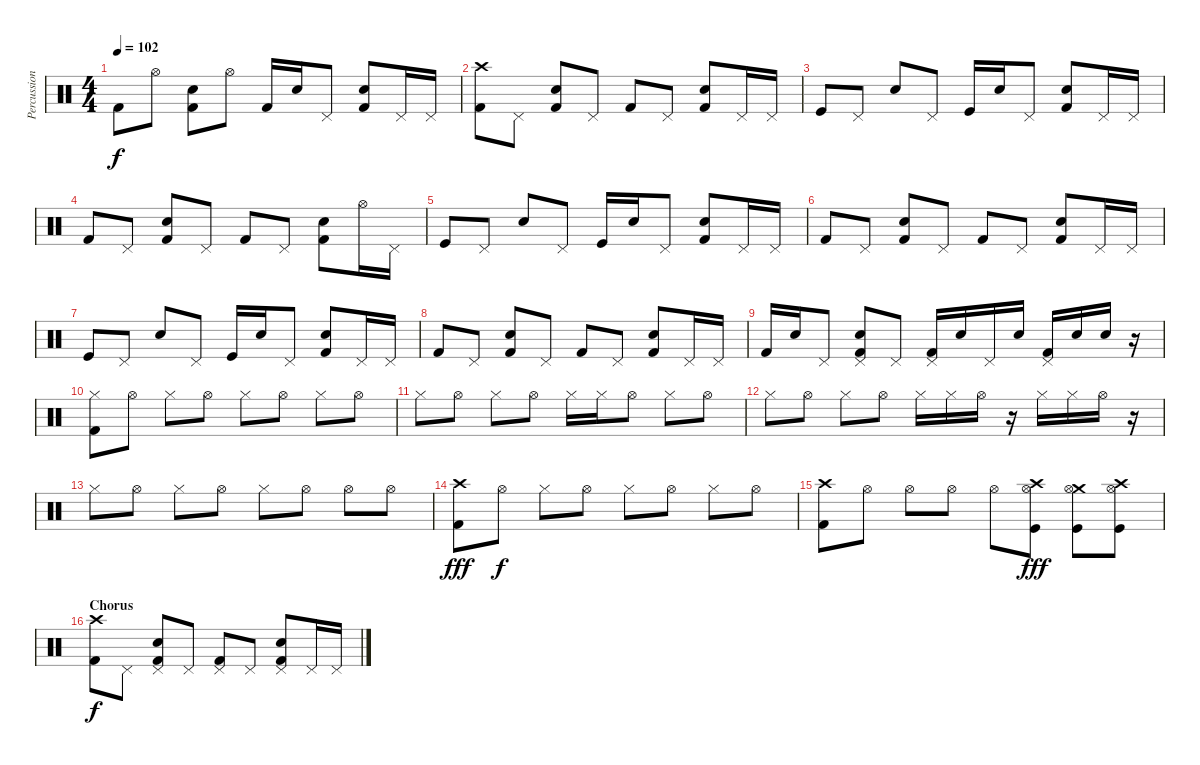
\track ("Percussion" "Percussion") {instrument percussion}
\staff {score}
\articulation defaults
\ts (4 4)
\tempo 102
\clef neutral
\ks c "Kick (hit) 2".8{dy f} "Hi-Hat (open)".8
("Snare (hit) 2" "Kick (hit) 2").8 "Hi-Hat (open)".8 "Kick (hit) 2".16 "Snare (hit) 2".16 "Pedal Hi-Hat (hit)".8 ("Snare (hit) 2" "Kick (hit) 2").8 "Pedal Hi-Hat (hit)".16 "Pedal Hi-Hat (hit)".16 |
("Crash high (hit)" "Kick (hit) 2").8 "Pedal Hi-Hat (hit)".8 ("Snare (hit) 2" "Kick (hit) 2").8 "Pedal Hi-Hat (hit)".8 "Kick (hit) 2".8 "Pedal Hi-Hat (hit)".8 ("Snare (hit) 2" "Kick (hit) 2").8 "Pedal Hi-Hat (hit)".16 "Pedal Hi-Hat (hit)".16 |
"Kick (hit)".8 "Pedal Hi-Hat (hit)".8 "Snare (hit) 2".8 "Pedal Hi-Hat (hit)".8 "Kick (hit)".16 "Snare (hit) 2".16 "Pedal Hi-Hat (hit)".8 ("Snare (hit) 2" "Kick (hit) 2").8 "Pedal Hi-Hat (hit)".16 "Pedal Hi-Hat (hit)".16 |
"Kick (hit) 2".8 "Pedal Hi-Hat (hit)".8 ("Snare (hit) 2" "Kick (hit) 2").8 "Pedal Hi-Hat (hit)".8 "Kick (hit) 2".8 "Pedal Hi-Hat (hit)".8 ("Snare (hit) 2" "Kick (hit) 2").8 "Hi-Hat (open)".16 "Pedal Hi-Hat (hit)".16 |
"Kick (hit)".8 "Pedal Hi-Hat (hit)".8 "Snare (hit) 2".8 "Pedal Hi-Hat (hit)".8 "Kick (hit)".16 "Snare (hit) 2".16 "Pedal Hi-Hat (hit)".8 ("Snare (hit) 2" "Kick (hit) 2").8 "Pedal Hi-Hat (hit)".16 "Pedal Hi-Hat (hit)".16 |
"Kick (hit) 2".8 "Pedal Hi-Hat (hit)".8 ("Snare (hit) 2" "Kick (hit) 2").8 "Pedal Hi-Hat (hit)".8 "Kick (hit) 2".8 "Pedal Hi-Hat (hit)".8 ("Snare (hit) 2" "Kick (hit) 2").8 "Pedal Hi-Hat (hit)".16 "Pedal Hi-Hat (hit)".16 |
"Kick (hit)".8 "Pedal Hi-Hat (hit)".8 "Snare (hit) 2".8 "Pedal Hi-Hat (hit)".8 "Kick (hit)".16 "Snare (hit) 2".16 "Pedal Hi-Hat (hit)".8 ("Snare (hit) 2" "Kick (hit) 2").8 "Pedal Hi-Hat (hit)".16 "Pedal Hi-Hat (hit)".16 |
"Kick (hit) 2".8 "Pedal Hi-Hat (hit)".8 ("Snare (hit) 2" "Kick (hit) 2").8 "Pedal Hi-Hat (hit)".8 "Kick (hit) 2".8 "Pedal Hi-Hat (hit)".8 ("Snare (hit) 2" "Kick (hit) 2").8 "Pedal Hi-Hat (hit)".16 "Pedal Hi-Hat (hit)".16 |
"Kick (hit) 2".16 "Snare (hit) 2".16 "Pedal Hi-Hat (hit)".8 ("Pedal Hi-Hat (hit)" "Snare (hit) 2" "Kick (hit) 2").8 "Pedal Hi-Hat (hit)".8 ("Pedal Hi-Hat (hit)" "Kick (hit) 2").16 "Snare (hit) 2".16 "Pedal Hi-Hat (hit)".16 "Snare (hit) 2".16 ("Pedal Hi-Hat (hit)" "Kick (hit) 2").16 "Snare (hit) 2".16 "Snare (hit) 2".16 r.16 |
("Hi-Hat (closed)" "Kick (hit) 2").8 "Hi-Hat (open)".8 "Hi-Hat (closed)".8 "Hi-Hat (open)".8 "Hi-Hat (closed)".8 "Hi-Hat (open)".8 "Hi-Hat (closed)".8 "Hi-Hat (open)".8 |
"Hi-Hat (closed)".8 "Hi-Hat (open)".8 "Hi-Hat (closed)".8 "Hi-Hat (open)".8 "Hi-Hat (closed)".16 "Hi-Hat (closed)".16 "Hi-Hat (open)".8 "Hi-Hat (closed)".8 "Hi-Hat (open)".8 |
"Hi-Hat (closed)".8 "Hi-Hat (open)".8 "Hi-Hat (closed)".8 "Hi-Hat (open)".8 "Hi-Hat (closed)".16 "Hi-Hat (closed)".16 "Hi-Hat (open)".16 r.16 "Hi-Hat (closed)".16 "Hi-Hat (closed)".16 "Hi-Hat (open)".16 r.16 |
"Hi-Hat (closed)".8 "Hi-Hat (open)".8 "Hi-Hat (closed)".8 "Hi-Hat (open)".8 "Hi-Hat (closed)".8 "Hi-Hat (open)".8 "Hi-Hat (open)".8 "Hi-Hat (open)".8 |
("Crash high (hit)" "Kick (hit) 2").8{dy fff} "Hi-Hat (open)".8{dy f} "Hi-Hat (closed)".8 "Hi-Hat (open)".8 "Hi-Hat (closed)".8 "Hi-Hat (open)".8 "Hi-Hat (closed)".8 "Hi-Hat (open)".8 |
("Crash high (hit)" "Kick (hit) 2").8 "Hi-Hat (open)".8 "Hi-Hat (open)".8 "Hi-Hat (open)".8 "Hi-Hat (open)".8 ("Crash high (hit)" "Hi-Hat (open)" "Kick (hit)").8{dy fff} ("Crash medium (hit)" "Hi-Hat (open)" "Kick (hit)").8 ("Crash high (hit)" "Hi-Hat (open)" "Kick (hit)").8 |
\section ("" "Chorus")
("Crash high (hit)" "Kick (hit) 2").8{dy f} "Pedal Hi-Hat (hit)".8 ("Pedal Hi-Hat (hit)" "Snare (hit) 2" "Kick (hit) 2").8 "Pedal Hi-Hat (hit)".8 ("Pedal Hi-Hat (hit)" "Kick (hit) 2").8 "Pedal Hi-Hat (hit)".8 ("Pedal Hi-Hat (hit)" "Snare (hit) 2" "Kick (hit) 2").8 "Pedal Hi-Hat (hit)".16 "Pedal Hi-Hat (hit)".16
